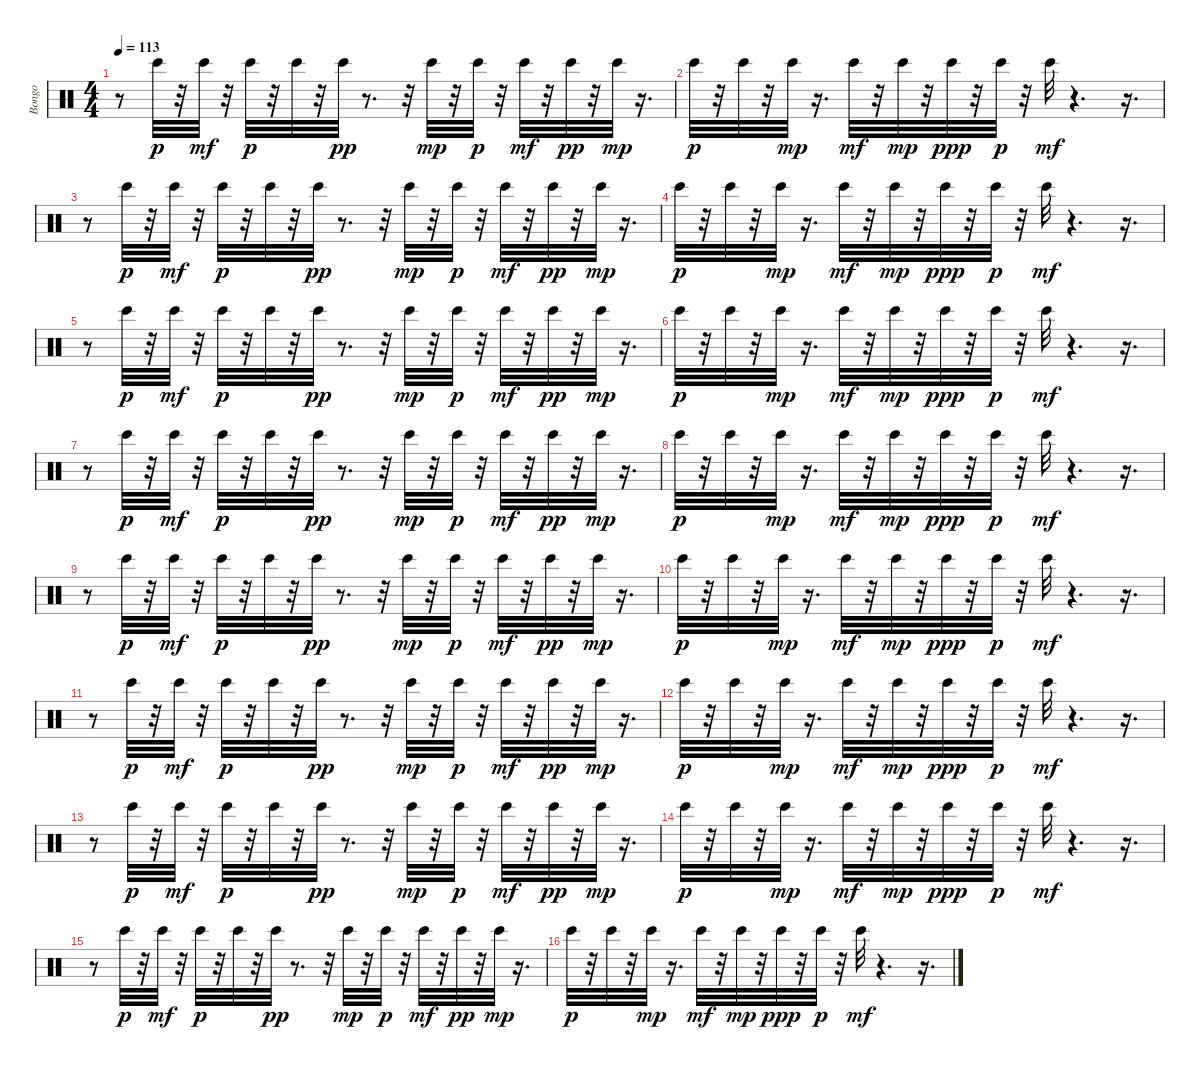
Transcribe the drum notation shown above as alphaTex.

\track ("Bongo" "Bongo") {instrument percussion}
\staff {score}
\articulation defaults
\ts (4 4)
\tempo 113
\clef neutral
\ks c
r.8{dy mf} "Bongo High (hit)".32{dy p} r.32 "Bongo High (hit)".32{dy mf} r.32 "Bongo High (hit)".32{dy p} r.32 "Bongo High (hit)".32 r.32 "Bongo High (hit)".32{dy pp} r.8{d} r.32 "Bongo High (hit)".32{dy mp} r.32 "Bongo High (hit)".32{dy p} r.32 "Bongo High (hit)".32{dy mf} r.32 "Bongo High (hit)".32{dy pp} r.32 "Bongo High (hit)".32{dy mp} r.16{d} |
"Bongo High (hit)".32{dy p} r.32 "Bongo High (hit)".32 r.32 "Bongo High (hit)".32{dy mp} r.16{d} "Bongo High (hit)".32{dy mf} r.32 "Bongo High (hit)".32{dy mp} r.32 "Bongo High (hit)".32{dy ppp} r.32 "Bongo High (hit)".32{dy p} r.32 "Bongo High (hit)".32{dy mf} r.4{d} r.16{d} |
r.8 "Bongo High (hit)".32{dy p} r.32 "Bongo High (hit)".32{dy mf} r.32 "Bongo High (hit)".32{dy p} r.32 "Bongo High (hit)".32 r.32 "Bongo High (hit)".32{dy pp} r.8{d} r.32 "Bongo High (hit)".32{dy mp} r.32 "Bongo High (hit)".32{dy p} r.32 "Bongo High (hit)".32{dy mf} r.32 "Bongo High (hit)".32{dy pp} r.32 "Bongo High (hit)".32{dy mp} r.16{d} |
"Bongo High (hit)".32{dy p} r.32 "Bongo High (hit)".32 r.32 "Bongo High (hit)".32{dy mp} r.16{d} "Bongo High (hit)".32{dy mf} r.32 "Bongo High (hit)".32{dy mp} r.32 "Bongo High (hit)".32{dy ppp} r.32 "Bongo High (hit)".32{dy p} r.32 "Bongo High (hit)".32{dy mf} r.4{d} r.16{d} |
r.8 "Bongo High (hit)".32{dy p} r.32 "Bongo High (hit)".32{dy mf} r.32 "Bongo High (hit)".32{dy p} r.32 "Bongo High (hit)".32 r.32 "Bongo High (hit)".32{dy pp} r.8{d} r.32 "Bongo High (hit)".32{dy mp} r.32 "Bongo High (hit)".32{dy p} r.32 "Bongo High (hit)".32{dy mf} r.32 "Bongo High (hit)".32{dy pp} r.32 "Bongo High (hit)".32{dy mp} r.16{d} |
"Bongo High (hit)".32{dy p} r.32 "Bongo High (hit)".32 r.32 "Bongo High (hit)".32{dy mp} r.16{d} "Bongo High (hit)".32{dy mf} r.32 "Bongo High (hit)".32{dy mp} r.32 "Bongo High (hit)".32{dy ppp} r.32 "Bongo High (hit)".32{dy p} r.32 "Bongo High (hit)".32{dy mf} r.4{d} r.16{d} |
r.8 "Bongo High (hit)".32{dy p} r.32 "Bongo High (hit)".32{dy mf} r.32 "Bongo High (hit)".32{dy p} r.32 "Bongo High (hit)".32 r.32 "Bongo High (hit)".32{dy pp} r.8{d} r.32 "Bongo High (hit)".32{dy mp} r.32 "Bongo High (hit)".32{dy p} r.32 "Bongo High (hit)".32{dy mf} r.32 "Bongo High (hit)".32{dy pp} r.32 "Bongo High (hit)".32{dy mp} r.16{d} |
"Bongo High (hit)".32{dy p} r.32 "Bongo High (hit)".32 r.32 "Bongo High (hit)".32{dy mp} r.16{d} "Bongo High (hit)".32{dy mf} r.32 "Bongo High (hit)".32{dy mp} r.32 "Bongo High (hit)".32{dy ppp} r.32 "Bongo High (hit)".32{dy p} r.32 "Bongo High (hit)".32{dy mf} r.4{d} r.16{d} |
r.8 "Bongo High (hit)".32{dy p} r.32 "Bongo High (hit)".32{dy mf} r.32 "Bongo High (hit)".32{dy p} r.32 "Bongo High (hit)".32 r.32 "Bongo High (hit)".32{dy pp} r.8{d} r.32 "Bongo High (hit)".32{dy mp} r.32 "Bongo High (hit)".32{dy p} r.32 "Bongo High (hit)".32{dy mf} r.32 "Bongo High (hit)".32{dy pp} r.32 "Bongo High (hit)".32{dy mp} r.16{d} |
"Bongo High (hit)".32{dy p} r.32 "Bongo High (hit)".32 r.32 "Bongo High (hit)".32{dy mp} r.16{d} "Bongo High (hit)".32{dy mf} r.32 "Bongo High (hit)".32{dy mp} r.32 "Bongo High (hit)".32{dy ppp} r.32 "Bongo High (hit)".32{dy p} r.32 "Bongo High (hit)".32{dy mf} r.4{d} r.16{d} |
r.8 "Bongo High (hit)".32{dy p} r.32 "Bongo High (hit)".32{dy mf} r.32 "Bongo High (hit)".32{dy p} r.32 "Bongo High (hit)".32 r.32 "Bongo High (hit)".32{dy pp} r.8{d} r.32 "Bongo High (hit)".32{dy mp} r.32 "Bongo High (hit)".32{dy p} r.32 "Bongo High (hit)".32{dy mf} r.32 "Bongo High (hit)".32{dy pp} r.32 "Bongo High (hit)".32{dy mp} r.16{d} |
"Bongo High (hit)".32{dy p} r.32 "Bongo High (hit)".32 r.32 "Bongo High (hit)".32{dy mp} r.16{d} "Bongo High (hit)".32{dy mf} r.32 "Bongo High (hit)".32{dy mp} r.32 "Bongo High (hit)".32{dy ppp} r.32 "Bongo High (hit)".32{dy p} r.32 "Bongo High (hit)".32{dy mf} r.4{d} r.16{d} |
r.8 "Bongo High (hit)".32{dy p} r.32 "Bongo High (hit)".32{dy mf} r.32 "Bongo High (hit)".32{dy p} r.32 "Bongo High (hit)".32 r.32 "Bongo High (hit)".32{dy pp} r.8{d} r.32 "Bongo High (hit)".32{dy mp} r.32 "Bongo High (hit)".32{dy p} r.32 "Bongo High (hit)".32{dy mf} r.32 "Bongo High (hit)".32{dy pp} r.32 "Bongo High (hit)".32{dy mp} r.16{d} |
"Bongo High (hit)".32{dy p} r.32 "Bongo High (hit)".32 r.32 "Bongo High (hit)".32{dy mp} r.16{d} "Bongo High (hit)".32{dy mf} r.32 "Bongo High (hit)".32{dy mp} r.32 "Bongo High (hit)".32{dy ppp} r.32 "Bongo High (hit)".32{dy p} r.32 "Bongo High (hit)".32{dy mf} r.4{d} r.16{d} |
r.8 "Bongo High (hit)".32{dy p} r.32 "Bongo High (hit)".32{dy mf} r.32 "Bongo High (hit)".32{dy p} r.32 "Bongo High (hit)".32 r.32 "Bongo High (hit)".32{dy pp} r.8{d} r.32 "Bongo High (hit)".32{dy mp} r.32 "Bongo High (hit)".32{dy p} r.32 "Bongo High (hit)".32{dy mf} r.32 "Bongo High (hit)".32{dy pp} r.32 "Bongo High (hit)".32{dy mp} r.16{d} |
"Bongo High (hit)".32{dy p} r.32 "Bongo High (hit)".32 r.32 "Bongo High (hit)".32{dy mp} r.16{d} "Bongo High (hit)".32{dy mf} r.32 "Bongo High (hit)".32{dy mp} r.32 "Bongo High (hit)".32{dy ppp} r.32 "Bongo High (hit)".32{dy p} r.32 "Bongo High (hit)".32{dy mf} r.4{d} r.16{d}
